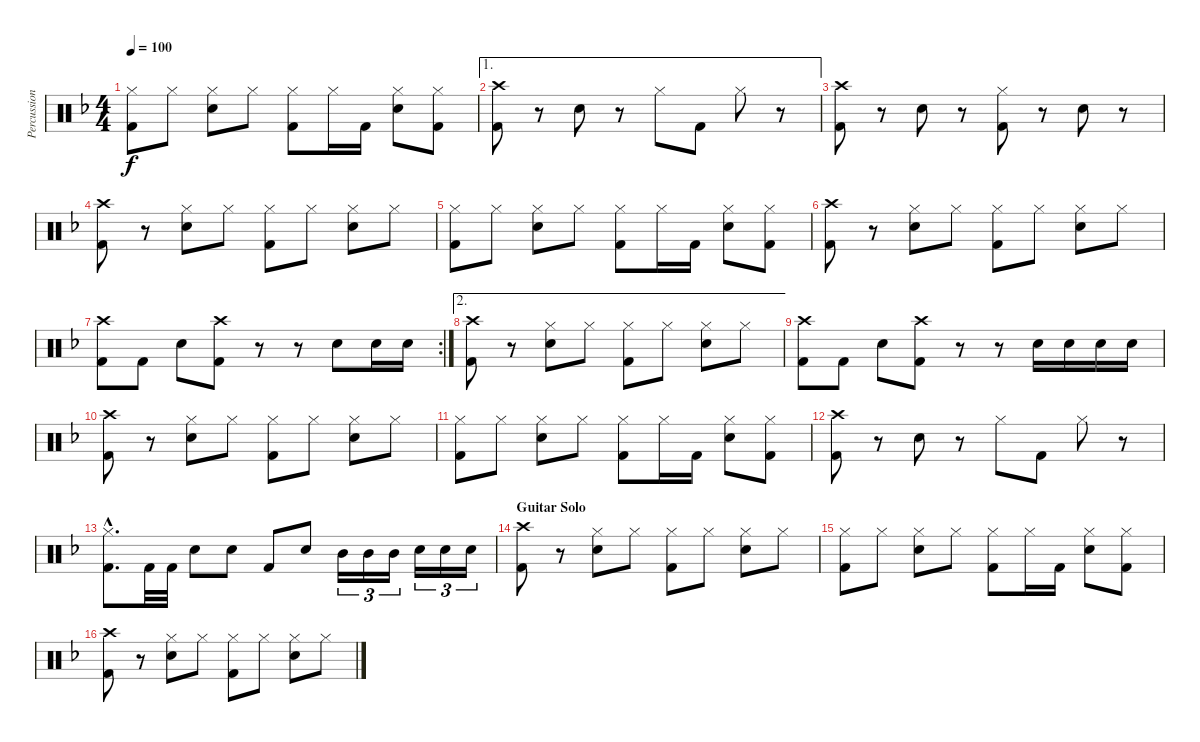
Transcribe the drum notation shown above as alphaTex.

\track ("Percussion" "Percussion") {instrument percussion}
\staff {score}
\articulation defaults
\ts (4 4)
\tempo 100
\clef neutral
\ks dminor
("Hi-Hat (closed)" "Kick (hit) 2").8{dy f} "Hi-Hat (closed)".8 ("Hi-Hat (closed)" "Snare (hit) 2").8 "Hi-Hat (closed)".8 ("Hi-Hat (closed)" "Kick (hit) 2").8 "Hi-Hat (closed)".16 "Kick (hit) 2".16 ("Hi-Hat (closed)" "Snare (hit) 2").8 ("Hi-Hat (closed)" "Kick (hit) 2").8 |
\ae 1
("Crash high (hit)" "Kick (hit) 2").8 r.8 "Snare (hit) 2".8 r.8 "Hi-Hat (closed)".8 "Kick (hit) 2".8 "Hi-Hat (closed)".8 r.8 |
("Crash high (hit)" "Kick (hit) 2").8 r.8 "Snare (hit) 2".8 r.8 ("Hi-Hat (closed)" "Kick (hit) 2").8 r.8 "Snare (hit) 2".8 r.8 |
("Crash high (hit)" "Kick (hit) 2").8 r.8 ("Hi-Hat (closed)" "Snare (hit) 2").8 "Hi-Hat (closed)".8 ("Hi-Hat (closed)" "Kick (hit) 2").8 "Hi-Hat (closed)".8 ("Hi-Hat (closed)" "Snare (hit) 2").8 "Hi-Hat (closed)".8 |
("Hi-Hat (closed)" "Kick (hit) 2").8 "Hi-Hat (closed)".8 ("Hi-Hat (closed)" "Snare (hit) 2").8 "Hi-Hat (closed)".8 ("Hi-Hat (closed)" "Kick (hit) 2").8 "Hi-Hat (closed)".16 "Kick (hit) 2".16 ("Hi-Hat (closed)" "Snare (hit) 2").8 ("Hi-Hat (closed)" "Kick (hit) 2").8 |
("Crash high (hit)" "Kick (hit) 2").8 r.8 ("Hi-Hat (closed)" "Snare (hit) 2").8 "Hi-Hat (closed)".8 ("Hi-Hat (closed)" "Kick (hit) 2").8 "Hi-Hat (closed)".8 ("Hi-Hat (closed)" "Snare (hit) 2").8 "Hi-Hat (closed)".8 |
\rc 2
("Crash high (hit)" "Kick (hit) 2").8 "Kick (hit) 2".8 "Snare (hit) 2".8 ("Crash high (hit)" "Kick (hit) 2").8 r.8 r.8 "Snare (hit) 2".8 "Snare (hit) 2".16 "Snare (hit) 2".16 |
\ae 2
("Crash high (hit)" "Kick (hit) 2").8 r.8 ("Hi-Hat (closed)" "Snare (hit) 2").8 "Hi-Hat (closed)".8 ("Hi-Hat (closed)" "Kick (hit) 2").8 "Hi-Hat (closed)".8 ("Hi-Hat (closed)" "Snare (hit) 2").8 "Hi-Hat (closed)".8 |
("Crash high (hit)" "Kick (hit) 2").8 "Kick (hit) 2".8 "Snare (hit) 2".8 ("Crash high (hit)" "Kick (hit) 2").8 r.8 r.8 "Snare (hit) 2".16 "Snare (hit) 2".16 "Snare (hit) 2".16 "Snare (hit) 2".16 |
("Crash high (hit)" "Kick (hit) 2").8 r.8 ("Hi-Hat (closed)" "Snare (hit) 2").8 "Hi-Hat (closed)".8 ("Hi-Hat (closed)" "Kick (hit) 2").8 "Hi-Hat (closed)".8 ("Hi-Hat (closed)" "Snare (hit) 2").8 "Hi-Hat (closed)".8 |
("Hi-Hat (closed)" "Kick (hit) 2").8 "Hi-Hat (closed)".8 ("Hi-Hat (closed)" "Snare (hit) 2").8 "Hi-Hat (closed)".8 ("Hi-Hat (closed)" "Kick (hit) 2").8 "Hi-Hat (closed)".16 "Kick (hit) 2".16 ("Hi-Hat (closed)" "Snare (hit) 2").8 ("Hi-Hat (closed)" "Kick (hit) 2").8 |
("Crash high (hit)" "Kick (hit) 2").8 r.8 "Snare (hit) 2".8 r.8 "Hi-Hat (closed)".8 "Kick (hit) 2".8 "Hi-Hat (closed)".8 r.8 |
("Hi-Hat (closed)"{hac} "Kick (hit) 2"{hac}).8{d} "Kick (hit) 2".32 "Kick (hit) 2".32 "Snare (hit) 2".8 "Snare (hit) 2".8 "Kick (hit) 2".8 "Snare (hit) 2".8 "Mid Tom (hit)".16{tu (3 2)} "Mid Tom (hit)".16{tu (3 2)} "Mid Tom (hit)".16{tu (3 2)} "Snare (hit) 2".16{tu (3 2)} "Snare (hit) 2".16{tu (3 2)} "Snare (hit) 2".16{tu (3 2)} |
\section ("" "Guitar Solo")
("Crash high (hit)" "Kick (hit) 2").8 r.8 ("Hi-Hat (closed)" "Snare (hit) 2").8 "Hi-Hat (closed)".8 ("Hi-Hat (closed)" "Kick (hit) 2").8 "Hi-Hat (closed)".8 ("Hi-Hat (closed)" "Snare (hit) 2").8 "Hi-Hat (closed)".8 |
("Hi-Hat (closed)" "Kick (hit) 2").8 "Hi-Hat (closed)".8 ("Hi-Hat (closed)" "Snare (hit) 2").8 "Hi-Hat (closed)".8 ("Hi-Hat (closed)" "Kick (hit) 2").8 "Hi-Hat (closed)".16 "Kick (hit) 2".16 ("Hi-Hat (closed)" "Snare (hit) 2").8 ("Hi-Hat (closed)" "Kick (hit) 2").8 |
("Crash high (hit)" "Kick (hit) 2").8 r.8 ("Hi-Hat (closed)" "Snare (hit) 2").8 "Hi-Hat (closed)".8 ("Hi-Hat (closed)" "Kick (hit) 2").8 "Hi-Hat (closed)".8 ("Hi-Hat (closed)" "Snare (hit) 2").8 "Hi-Hat (closed)".8
